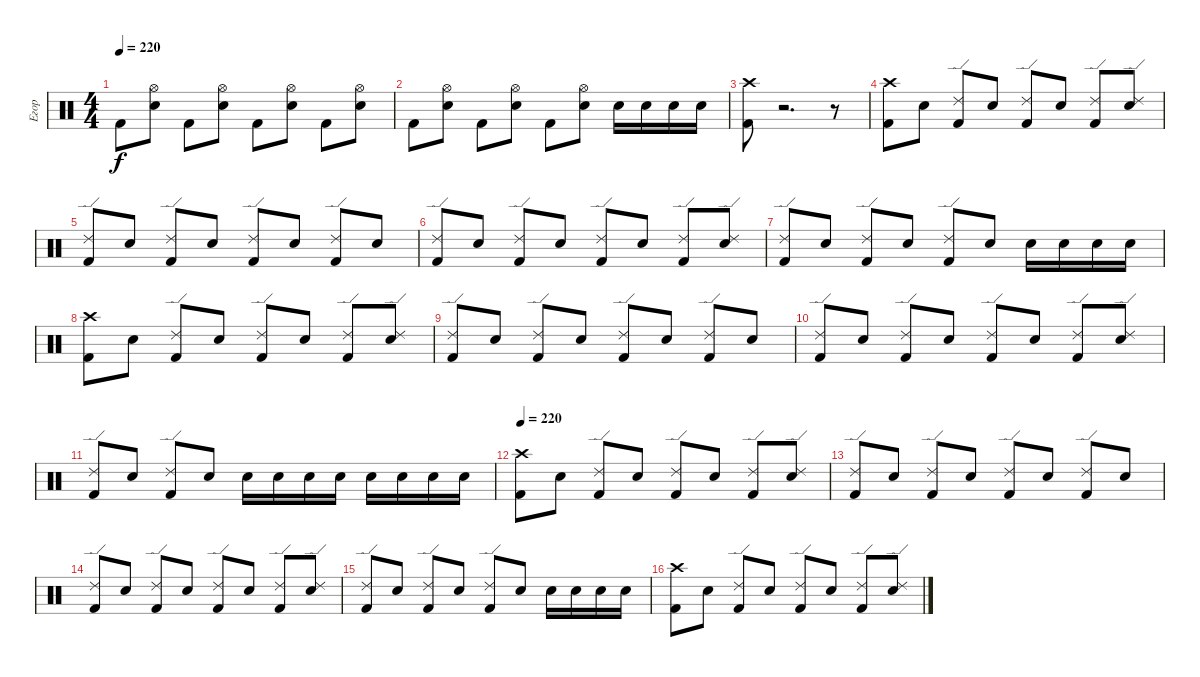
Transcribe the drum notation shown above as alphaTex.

\track ("Егор" "Егор") {instrument percussion}
\staff {score}
\articulation defaults
\ts (4 4)
\tempo 220
\clef neutral
\ks c "Kick (hit) 2".8{dy f}
("Hi-Hat (open)" "Snare (hit) 2").8 "Kick (hit) 2".8 ("Hi-Hat (open)" "Snare (hit) 2").8 "Kick (hit) 2".8 ("Hi-Hat (open)" "Snare (hit) 2").8 "Kick (hit) 2".8 ("Hi-Hat (open)" "Snare (hit) 2").8 |
"Kick (hit) 2".8 ("Hi-Hat (open)" "Snare (hit) 2").8 "Kick (hit) 2".8 ("Hi-Hat (open)" "Snare (hit) 2").8 "Kick (hit) 2".8 ("Hi-Hat (open)" "Snare (hit) 2").8 "Snare (hit) 2".16 "Snare (hit) 2".16 "Snare (hit) 2".16 "Snare (hit) 2".16 |
("Crash high (hit)" "Kick (hit) 2").8 r.2{d} r.8 |
("Crash high (hit)" "Kick (hit) 2").8 "Snare (hit) 2".8 ("Ride (edge) 2" "Kick (hit) 2").8 "Snare (hit) 2".8 ("Ride (edge) 2" "Kick (hit) 2").8 "Snare (hit) 2".8 ("Ride (edge) 2" "Kick (hit) 2").8 ("Ride (edge) 2" "Snare (hit) 2").8 |
("Ride (edge) 2" "Kick (hit) 2").8 "Snare (hit) 2".8 ("Ride (edge) 2" "Kick (hit) 2").8 "Snare (hit) 2".8 ("Ride (edge) 2" "Kick (hit) 2").8 "Snare (hit) 2".8 ("Ride (edge) 2" "Kick (hit) 2").8 "Snare (hit) 2".8 |
("Ride (edge) 2" "Kick (hit) 2").8 "Snare (hit) 2".8 ("Ride (edge) 2" "Kick (hit) 2").8 "Snare (hit) 2".8 ("Ride (edge) 2" "Kick (hit) 2").8 "Snare (hit) 2".8 ("Ride (edge) 2" "Kick (hit) 2").8 ("Ride (edge) 2" "Snare (hit) 2").8 |
("Ride (edge) 2" "Kick (hit) 2").8 "Snare (hit) 2".8 ("Ride (edge) 2" "Kick (hit) 2").8 "Snare (hit) 2".8 ("Ride (edge) 2" "Kick (hit) 2").8 "Snare (hit) 2".8 "Snare (hit) 2".16 "Snare (hit) 2".16 "Snare (hit) 2".16 "Snare (hit) 2".16 |
("Crash high (hit)" "Kick (hit) 2").8 "Snare (hit) 2".8 ("Ride (edge) 2" "Kick (hit) 2").8 "Snare (hit) 2".8 ("Ride (edge) 2" "Kick (hit) 2").8 "Snare (hit) 2".8 ("Ride (edge) 2" "Kick (hit) 2").8 ("Ride (edge) 2" "Snare (hit) 2").8 |
("Ride (edge) 2" "Kick (hit) 2").8 "Snare (hit) 2".8 ("Ride (edge) 2" "Kick (hit) 2").8 "Snare (hit) 2".8 ("Ride (edge) 2" "Kick (hit) 2").8 "Snare (hit) 2".8 ("Ride (edge) 2" "Kick (hit) 2").8 "Snare (hit) 2".8 |
("Ride (edge) 2" "Kick (hit) 2").8 "Snare (hit) 2".8 ("Ride (edge) 2" "Kick (hit) 2").8 "Snare (hit) 2".8 ("Ride (edge) 2" "Kick (hit) 2").8 "Snare (hit) 2".8 ("Ride (edge) 2" "Kick (hit) 2").8 ("Ride (edge) 2" "Snare (hit) 2").8 |
("Ride (edge) 2" "Kick (hit) 2").8 "Snare (hit) 2".8 ("Ride (edge) 2" "Kick (hit) 2").8 "Snare (hit) 2".8 "Snare (hit) 2".16 "Snare (hit) 2".16 "Snare (hit) 2".16 "Snare (hit) 2".16 "Snare (hit) 2".16 "Snare (hit) 2".16 "Snare (hit) 2".16 "Snare (hit) 2".16 |
\tempo 220
("Crash high (hit)" "Kick (hit) 2").8 "Snare (hit) 2".8 ("Ride (edge) 2" "Kick (hit) 2").8 "Snare (hit) 2".8 ("Ride (edge) 2" "Kick (hit) 2").8 "Snare (hit) 2".8 ("Ride (edge) 2" "Kick (hit) 2").8 ("Ride (edge) 2" "Snare (hit) 2").8 |
("Ride (edge) 2" "Kick (hit) 2").8 "Snare (hit) 2".8 ("Ride (edge) 2" "Kick (hit) 2").8 "Snare (hit) 2".8 ("Ride (edge) 2" "Kick (hit) 2").8 "Snare (hit) 2".8 ("Ride (edge) 2" "Kick (hit) 2").8 "Snare (hit) 2".8 |
("Ride (edge) 2" "Kick (hit) 2").8 "Snare (hit) 2".8 ("Ride (edge) 2" "Kick (hit) 2").8 "Snare (hit) 2".8 ("Ride (edge) 2" "Kick (hit) 2").8 "Snare (hit) 2".8 ("Ride (edge) 2" "Kick (hit) 2").8 ("Ride (edge) 2" "Snare (hit) 2").8 |
("Ride (edge) 2" "Kick (hit) 2").8 "Snare (hit) 2".8 ("Ride (edge) 2" "Kick (hit) 2").8 "Snare (hit) 2".8 ("Ride (edge) 2" "Kick (hit) 2").8 "Snare (hit) 2".8 "Snare (hit) 2".16 "Snare (hit) 2".16 "Snare (hit) 2".16 "Snare (hit) 2".16 |
("Crash high (hit)" "Kick (hit) 2").8 "Snare (hit) 2".8 ("Ride (edge) 2" "Kick (hit) 2").8 "Snare (hit) 2".8 ("Ride (edge) 2" "Kick (hit) 2").8 "Snare (hit) 2".8 ("Ride (edge) 2" "Kick (hit) 2").8 ("Ride (edge) 2" "Snare (hit) 2").8
